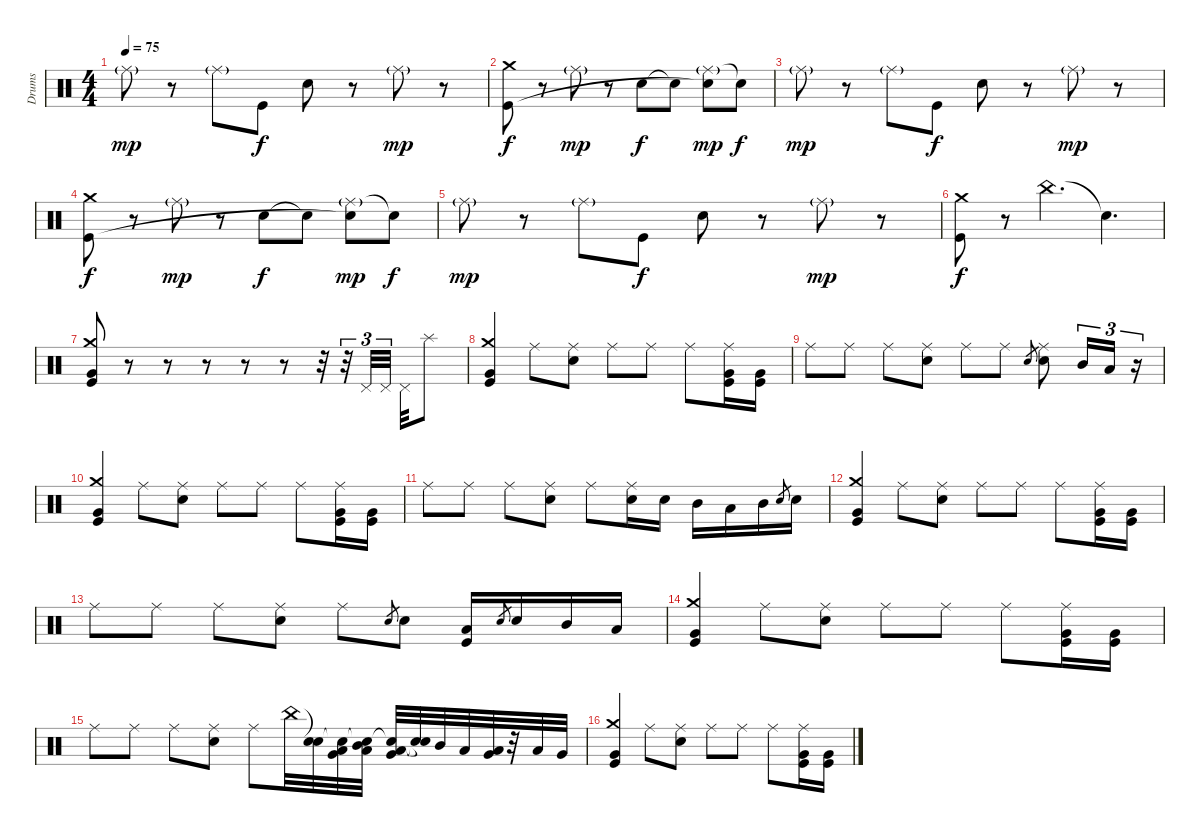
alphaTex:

\track ("Drums" "Drums") {instrument percussion}
\staff {score}
\articulation defaults
\ts (4 4)
\tempo 75
\clef neutral
\ks c "Ride (middle)"{g}.8{dy mp}
r.8 "Ride (middle)"{g}.8 "Kick (hit)".8{dy f} "Electric Snare (hit)".8 r.8 "Ride (middle)"{g}.8{dy mp} r.8 |
("Crash medium (hit)" "Kick (hit)").8{dy f} r.8 "Ride (middle)"{g}.8{dy mp} r.8 "Electric Snare (hit)".8{dy f} "Electric Snare (hit)"{t}.8 ("Ride (middle)"{g} "Snare (hit)"{t}).8{dy mp} "Snare (hit)"{t}.8{dy f} |
"Ride (middle)"{g}.8{dy mp} r.8 "Ride (middle)"{g}.8 "Kick (hit)".8{dy f} "Electric Snare (hit)".8 r.8 "Ride (middle)"{g}.8{dy mp} r.8 |
("Crash medium (hit)" "Kick (hit)").8{dy f} r.8 "Ride (middle)"{g}.8{dy mp} r.8 "Electric Snare (hit)".8{dy f} "Electric Snare (hit)"{t}.8 ("Ride (middle)"{g} "Snare (hit)"{t}).8{dy mp} "Snare (hit)"{t}.8{dy f} |
"Ride (middle)"{g}.8{dy mp} r.8 "Ride (middle)"{g}.8 "Kick (hit)".8{dy f} "Electric Snare (hit)".8 r.8 "Ride (middle)"{g}.8{dy mp} r.8 |
("Crash medium (hit)" "Kick (hit)").8{dy f} r.8 "China (hit)".4{d volume 3} "Snare (hit)"{t}.4{d} |
("Crash medium (hit)" "Very Low Tom (hit)" "Kick (hit)").8{volume 8} r.8 r.8 r.8 r.8 r.8 r.32 r.32{tu (3 2)} "Pedal Hi-Hat (hit)".32{tu (3 2)} "Pedal Hi-Hat (hit)".32{tu (3 2) beam splitsecondary} "Pedal Hi-Hat (hit)".32 "Splash (hit)".8 |
("Crash medium (hit)" "Very Low Tom (hit)" "Kick (hit)").4 "Ride (middle)".8 ("Ride (middle)" "Electric Snare (hit)").8 "Ride (middle)".8 "Ride (middle)".8 "Ride (middle)".8 ("Ride (middle)" "Very Low Tom (hit)" "Kick (hit)").16 ("Very Low Tom (hit)" "Kick (hit)").16 |
"Ride (middle)".8 "Ride (middle)".8 "Ride (middle)".8 ("Ride (middle)" "Electric Snare (hit)").8 "Ride (middle)".8 "Ride (middle)".8 "Electric Snare (hit)".8{gr} ("Ride (middle)" "Electric Snare (hit)").8 "Mid Tom (hit)".16{tu (3 2)} "Low Tom (hit)".16{tu (3 2)} r.16{tu (3 2)} |
("Crash medium (hit)" "Very Low Tom (hit)" "Kick (hit)").4 "Ride (middle)".8 ("Ride (middle)" "Electric Snare (hit)").8 "Ride (middle)".8 "Ride (middle)".8 "Ride (middle)".8 ("Ride (middle)" "Very Low Tom (hit)" "Kick (hit)").16 ("Very Low Tom (hit)" "Kick (hit)").16 |
"Ride (middle)".8 "Ride (middle)".8 "Ride (middle)".8 ("Ride (middle)" "Electric Snare (hit)").8 "Ride (middle)".8 ("Ride (middle)" "Electric Snare (hit)").16 "Electric Snare (hit)".16 "Mid Tom (hit)".16 "Low Tom (hit)".16 "Mid Tom (hit)".16 "Electric Snare (hit)".8{gr} "Electric Snare (hit)".16 |
("Crash medium (hit)" "Very Low Tom (hit)" "Kick (hit)").4 "Ride (middle)".8 ("Ride (middle)" "Electric Snare (hit)").8 "Ride (middle)".8 "Ride (middle)".8 "Ride (middle)".8 ("Ride (middle)" "Very Low Tom (hit)" "Kick (hit)").16 ("Very Low Tom (hit)" "Kick (hit)").16 |
"Ride (middle)".8 "Ride (middle)".8 "Ride (middle)".8 ("Ride (middle)" "Electric Snare (hit)").8 "Ride (middle)".8 "Electric Snare (hit)".8{gr} "Electric Snare (hit)".8 ("Low Tom (hit)" "Kick (hit)").16 "Electric Snare (hit)".8{gr} "Electric Snare (hit)".16 "Mid Tom (hit)".16 "Low Tom (hit)".16 |
("Crash medium (hit)" "Very Low Tom (hit)" "Kick (hit)").4 "Ride (middle)".8 ("Ride (middle)" "Electric Snare (hit)").8 "Ride (middle)".8 "Ride (middle)".8 "Ride (middle)".8 ("Ride (middle)" "Very Low Tom (hit)" "Kick (hit)").16 ("Very Low Tom (hit)" "Kick (hit)").16 |
"Ride (middle)".8 "Ride (middle)".8 "Ride (middle)".8 ("Ride (middle)" "Electric Snare (hit)").8 "Ride (middle)".8 "China (hit)".32 ("Snare (hit)"{t} "Electric Snare (hit)").32 ("Snare (hit)"{t} "Low Tom (hit)" "Very Low Tom (hit)").32 ("Snare (hit)"{t} "Mid Tom (hit)" "Low Tom (hit)").32 ("Snare (hit)"{t} "Low Tom (hit)" "Very Low Tom (hit)").32 ("Snare (hit)"{t} "Snare (hit)"{t}).32 "Mid Tom (hit)".32 "Low Tom (hit)".32 ("Low Tom (hit)" "Very Low Tom (hit)").32 r.32 "Low Tom (hit)".32 "Very Low Tom (hit)".32 |
("Crash medium (hit)" "Very Low Tom (hit)" "Kick (hit)").4 "Ride (middle)".8 ("Ride (middle)" "Electric Snare (hit)").8 "Ride (middle)".8 "Ride (middle)".8 "Ride (middle)".8 ("Ride (middle)" "Very Low Tom (hit)" "Kick (hit)").16 ("Very Low Tom (hit)" "Kick (hit)").16
